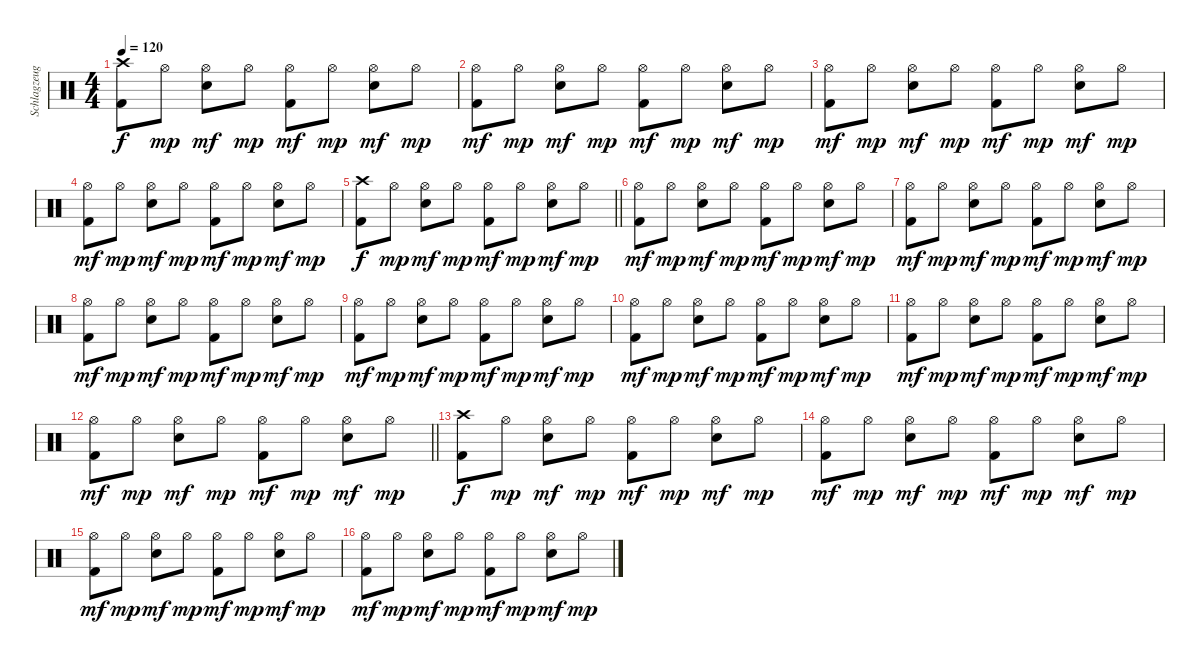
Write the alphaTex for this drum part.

\track ("Schlagzeug" "Schlagzeug") {instrument percussion}
\staff {score}
\articulation defaults
\ts (4 4)
\tempo 120
\clef neutral
\ks c
("Crash high (hit)" "Kick (hit) 2").8{dy f} "Hi-Hat (open)".8{dy mp} ("Hi-Hat (open)" "Electric Snare (hit)").8{dy mf} "Hi-Hat (open)".8{dy mp} ("Hi-Hat (open)" "Kick (hit) 2").8{dy mf} "Hi-Hat (open)".8{dy mp} ("Hi-Hat (open)" "Electric Snare (hit)").8{dy mf} "Hi-Hat (open)".8{dy mp} |
("Hi-Hat (open)" "Kick (hit) 2").8{dy mf} "Hi-Hat (open)".8{dy mp} ("Hi-Hat (open)" "Electric Snare (hit)").8{dy mf} "Hi-Hat (open)".8{dy mp} ("Hi-Hat (open)" "Kick (hit) 2").8{dy mf} "Hi-Hat (open)".8{dy mp} ("Hi-Hat (open)" "Electric Snare (hit)").8{dy mf} "Hi-Hat (open)".8{dy mp} |
("Hi-Hat (open)" "Kick (hit) 2").8{dy mf} "Hi-Hat (open)".8{dy mp} ("Hi-Hat (open)" "Electric Snare (hit)").8{dy mf} "Hi-Hat (open)".8{dy mp} ("Hi-Hat (open)" "Kick (hit) 2").8{dy mf} "Hi-Hat (open)".8{dy mp} ("Hi-Hat (open)" "Electric Snare (hit)").8{dy mf} "Hi-Hat (open)".8{dy mp} |
("Hi-Hat (open)" "Kick (hit) 2").8{dy mf} "Hi-Hat (open)".8{dy mp} ("Hi-Hat (open)" "Electric Snare (hit)").8{dy mf} "Hi-Hat (open)".8{dy mp} ("Hi-Hat (open)" "Kick (hit) 2").8{dy mf} "Hi-Hat (open)".8{dy mp} ("Hi-Hat (open)" "Electric Snare (hit)").8{dy mf} "Hi-Hat (open)".8{dy mp} |
\barLineRight lightlight
("Crash high (hit)" "Kick (hit) 2").8{dy f} "Hi-Hat (open)".8{dy mp} ("Hi-Hat (open)" "Electric Snare (hit)").8{dy mf} "Hi-Hat (open)".8{dy mp} ("Hi-Hat (open)" "Kick (hit) 2").8{dy mf} "Hi-Hat (open)".8{dy mp} ("Hi-Hat (open)" "Electric Snare (hit)").8{dy mf} "Hi-Hat (open)".8{dy mp} |
("Hi-Hat (open)" "Kick (hit) 2").8{dy mf} "Hi-Hat (open)".8{dy mp} ("Hi-Hat (open)" "Electric Snare (hit)").8{dy mf} "Hi-Hat (open)".8{dy mp} ("Hi-Hat (open)" "Kick (hit) 2").8{dy mf} "Hi-Hat (open)".8{dy mp} ("Hi-Hat (open)" "Electric Snare (hit)").8{dy mf} "Hi-Hat (open)".8{dy mp} |
("Hi-Hat (open)" "Kick (hit) 2").8{dy mf} "Hi-Hat (open)".8{dy mp} ("Hi-Hat (open)" "Electric Snare (hit)").8{dy mf} "Hi-Hat (open)".8{dy mp} ("Hi-Hat (open)" "Kick (hit) 2").8{dy mf} "Hi-Hat (open)".8{dy mp} ("Hi-Hat (open)" "Electric Snare (hit)").8{dy mf} "Hi-Hat (open)".8{dy mp} |
("Hi-Hat (open)" "Kick (hit) 2").8{dy mf} "Hi-Hat (open)".8{dy mp} ("Hi-Hat (open)" "Electric Snare (hit)").8{dy mf} "Hi-Hat (open)".8{dy mp} ("Hi-Hat (open)" "Kick (hit) 2").8{dy mf} "Hi-Hat (open)".8{dy mp} ("Hi-Hat (open)" "Electric Snare (hit)").8{dy mf} "Hi-Hat (open)".8{dy mp} |
("Hi-Hat (open)" "Kick (hit) 2").8{dy mf} "Hi-Hat (open)".8{dy mp} ("Hi-Hat (open)" "Electric Snare (hit)").8{dy mf} "Hi-Hat (open)".8{dy mp} ("Hi-Hat (open)" "Kick (hit) 2").8{dy mf} "Hi-Hat (open)".8{dy mp} ("Hi-Hat (open)" "Electric Snare (hit)").8{dy mf} "Hi-Hat (open)".8{dy mp} |
("Hi-Hat (open)" "Kick (hit) 2").8{dy mf} "Hi-Hat (open)".8{dy mp} ("Hi-Hat (open)" "Electric Snare (hit)").8{dy mf} "Hi-Hat (open)".8{dy mp} ("Hi-Hat (open)" "Kick (hit) 2").8{dy mf} "Hi-Hat (open)".8{dy mp} ("Hi-Hat (open)" "Electric Snare (hit)").8{dy mf} "Hi-Hat (open)".8{dy mp} |
("Hi-Hat (open)" "Kick (hit) 2").8{dy mf} "Hi-Hat (open)".8{dy mp} ("Hi-Hat (open)" "Electric Snare (hit)").8{dy mf} "Hi-Hat (open)".8{dy mp} ("Hi-Hat (open)" "Kick (hit) 2").8{dy mf} "Hi-Hat (open)".8{dy mp} ("Hi-Hat (open)" "Electric Snare (hit)").8{dy mf} "Hi-Hat (open)".8{dy mp} |
\barLineRight lightlight
("Hi-Hat (open)" "Kick (hit) 2").8{dy mf} "Hi-Hat (open)".8{dy mp} ("Hi-Hat (open)" "Electric Snare (hit)").8{dy mf} "Hi-Hat (open)".8{dy mp} ("Hi-Hat (open)" "Kick (hit) 2").8{dy mf} "Hi-Hat (open)".8{dy mp} ("Hi-Hat (open)" "Electric Snare (hit)").8{dy mf} "Hi-Hat (open)".8{dy mp} |
("Crash high (hit)" "Kick (hit) 2").8{dy f} "Hi-Hat (open)".8{dy mp} ("Hi-Hat (open)" "Electric Snare (hit)").8{dy mf} "Hi-Hat (open)".8{dy mp} ("Hi-Hat (open)" "Kick (hit) 2").8{dy mf} "Hi-Hat (open)".8{dy mp} ("Hi-Hat (open)" "Electric Snare (hit)").8{dy mf} "Hi-Hat (open)".8{dy mp} |
("Hi-Hat (open)" "Kick (hit) 2").8{dy mf} "Hi-Hat (open)".8{dy mp} ("Hi-Hat (open)" "Electric Snare (hit)").8{dy mf} "Hi-Hat (open)".8{dy mp} ("Hi-Hat (open)" "Kick (hit) 2").8{dy mf} "Hi-Hat (open)".8{dy mp} ("Hi-Hat (open)" "Electric Snare (hit)").8{dy mf} "Hi-Hat (open)".8{dy mp} |
("Hi-Hat (open)" "Kick (hit) 2").8{dy mf} "Hi-Hat (open)".8{dy mp} ("Hi-Hat (open)" "Electric Snare (hit)").8{dy mf} "Hi-Hat (open)".8{dy mp} ("Hi-Hat (open)" "Kick (hit) 2").8{dy mf} "Hi-Hat (open)".8{dy mp} ("Hi-Hat (open)" "Electric Snare (hit)").8{dy mf} "Hi-Hat (open)".8{dy mp} |
("Hi-Hat (open)" "Kick (hit) 2").8{dy mf} "Hi-Hat (open)".8{dy mp} ("Hi-Hat (open)" "Electric Snare (hit)").8{dy mf} "Hi-Hat (open)".8{dy mp} ("Hi-Hat (open)" "Kick (hit) 2").8{dy mf} "Hi-Hat (open)".8{dy mp} ("Hi-Hat (open)" "Electric Snare (hit)").8{dy mf} "Hi-Hat (open)".8{dy mp}
